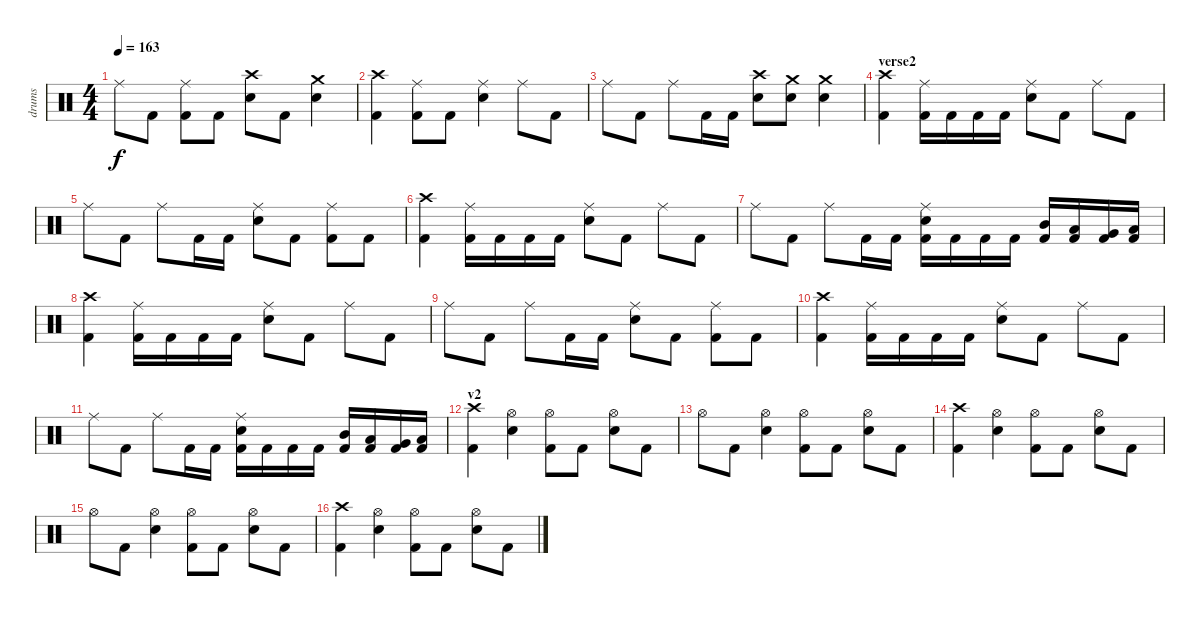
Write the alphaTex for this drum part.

\track ("drums" "drums") {instrument percussion}
\staff {score}
\articulation defaults
\ts (4 4)
\tempo 163
\clef neutral
\ks c "Ride (middle)".8{dy f} "Kick (hit) 2".8
("Ride (middle)" "Kick (hit) 2").8 "Kick (hit) 2".8 ("Crash high (hit)" "Electric Snare (hit)").8 "Kick (hit) 2".8 ("Crash medium (hit)" "Electric Snare (hit)").4 |
("Crash high (hit)" "Kick (hit) 2").4 ("Ride (middle)" "Kick (hit) 2").8 "Kick (hit) 2".8 ("Ride (middle)" "Electric Snare (hit)").4 "Ride (middle)".8 "Kick (hit) 2".8 |
"Ride (middle)".8 "Kick (hit) 2".8 "Ride (middle)".8 "Kick (hit) 2".16 "Kick (hit) 2".16 ("Crash high (hit)" "Electric Snare (hit)").8 ("Crash medium (hit)" "Electric Snare (hit)").8 ("Crash medium (hit)" "Electric Snare (hit)").4 |
\section ("" "verse2")
("Crash high (hit)" "Kick (hit) 2").4 ("Ride (middle)" "Kick (hit) 2").16 "Kick (hit) 2".16 "Kick (hit) 2".16 "Kick (hit) 2".16 ("Ride (middle)" "Electric Snare (hit)").8 "Kick (hit) 2".8 "Ride (middle)".8 "Kick (hit) 2".8 |
"Ride (middle)".8 "Kick (hit) 2".8 "Ride (middle)".8 "Kick (hit) 2".16 "Kick (hit) 2".16 ("Ride (middle)" "Electric Snare (hit)").8 "Kick (hit) 2".8 ("Ride (middle)" "Kick (hit) 2").8 "Kick (hit) 2".8 |
("Crash high (hit)" "Kick (hit) 2").4 ("Ride (middle)" "Kick (hit) 2").16 "Kick (hit) 2".16 "Kick (hit) 2".16 "Kick (hit) 2".16 ("Ride (middle)" "Electric Snare (hit)").8 "Kick (hit) 2".8 "Ride (middle)".8 "Kick (hit) 2".8 |
"Ride (middle)".8 "Kick (hit) 2".8 "Ride (middle)".8 "Kick (hit) 2".16 "Kick (hit) 2".16 ("Ride (middle)" "Electric Snare (hit)" "Kick (hit) 2").16 "Kick (hit) 2".16 "Kick (hit) 2".16 "Kick (hit) 2".16 ("Mid Tom (hit)" "Kick (hit) 2").16 ("Low Tom (hit)" "Kick (hit) 2").16 ("Very Low Tom (hit)" "Kick (hit) 2").16 ("Low Floor Tom (hit)" "Kick (hit) 2").16 |
("Crash high (hit)" "Kick (hit) 2").4 ("Ride (middle)" "Kick (hit) 2").16 "Kick (hit) 2".16 "Kick (hit) 2".16 "Kick (hit) 2".16 ("Ride (middle)" "Electric Snare (hit)").8 "Kick (hit) 2".8 "Ride (middle)".8 "Kick (hit) 2".8 |
"Ride (middle)".8 "Kick (hit) 2".8 "Ride (middle)".8 "Kick (hit) 2".16 "Kick (hit) 2".16 ("Ride (middle)" "Electric Snare (hit)").8 "Kick (hit) 2".8 ("Ride (middle)" "Kick (hit) 2").8 "Kick (hit) 2".8 |
("Crash high (hit)" "Kick (hit) 2").4 ("Ride (middle)" "Kick (hit) 2").16 "Kick (hit) 2".16 "Kick (hit) 2".16 "Kick (hit) 2".16 ("Ride (middle)" "Electric Snare (hit)").8 "Kick (hit) 2".8 "Ride (middle)".8 "Kick (hit) 2".8 |
"Ride (middle)".8 "Kick (hit) 2".8 "Ride (middle)".8 "Kick (hit) 2".16 "Kick (hit) 2".16 ("Ride (middle)" "Electric Snare (hit)" "Kick (hit) 2").16 "Kick (hit) 2".16 "Kick (hit) 2".16 "Kick (hit) 2".16 ("Mid Tom (hit)" "Kick (hit) 2").16 ("Low Tom (hit)" "Kick (hit) 2").16 ("Very Low Tom (hit)" "Kick (hit) 2").16 ("Low Floor Tom (hit)" "Kick (hit) 2").16 |
\section ("" "v2")
("Crash high (hit)" "Kick (hit) 2").4 ("Hi-Hat (open)" "Electric Snare (hit)").4 ("Hi-Hat (open)" "Kick (hit) 2").8 "Kick (hit) 2".8 ("Hi-Hat (open)" "Electric Snare (hit)").8 "Kick (hit) 2".8 |
"Hi-Hat (open)".8 "Kick (hit) 2".8 ("Hi-Hat (open)" "Electric Snare (hit)").4 ("Hi-Hat (open)" "Kick (hit) 2").8 "Kick (hit) 2".8 ("Hi-Hat (open)" "Electric Snare (hit)").8 "Kick (hit) 2".8 |
("Crash high (hit)" "Kick (hit) 2").4 ("Hi-Hat (open)" "Electric Snare (hit)").4 ("Hi-Hat (open)" "Kick (hit) 2").8 "Kick (hit) 2".8 ("Hi-Hat (open)" "Electric Snare (hit)").8 "Kick (hit) 2".8 |
"Hi-Hat (open)".8 "Kick (hit) 2".8 ("Hi-Hat (open)" "Electric Snare (hit)").4 ("Hi-Hat (open)" "Kick (hit) 2").8 "Kick (hit) 2".8 ("Hi-Hat (open)" "Electric Snare (hit)").8 "Kick (hit) 2".8 |
("Crash high (hit)" "Kick (hit) 2").4 ("Hi-Hat (open)" "Electric Snare (hit)").4 ("Hi-Hat (open)" "Kick (hit) 2").8 "Kick (hit) 2".8 ("Hi-Hat (open)" "Electric Snare (hit)").8 "Kick (hit) 2".8
